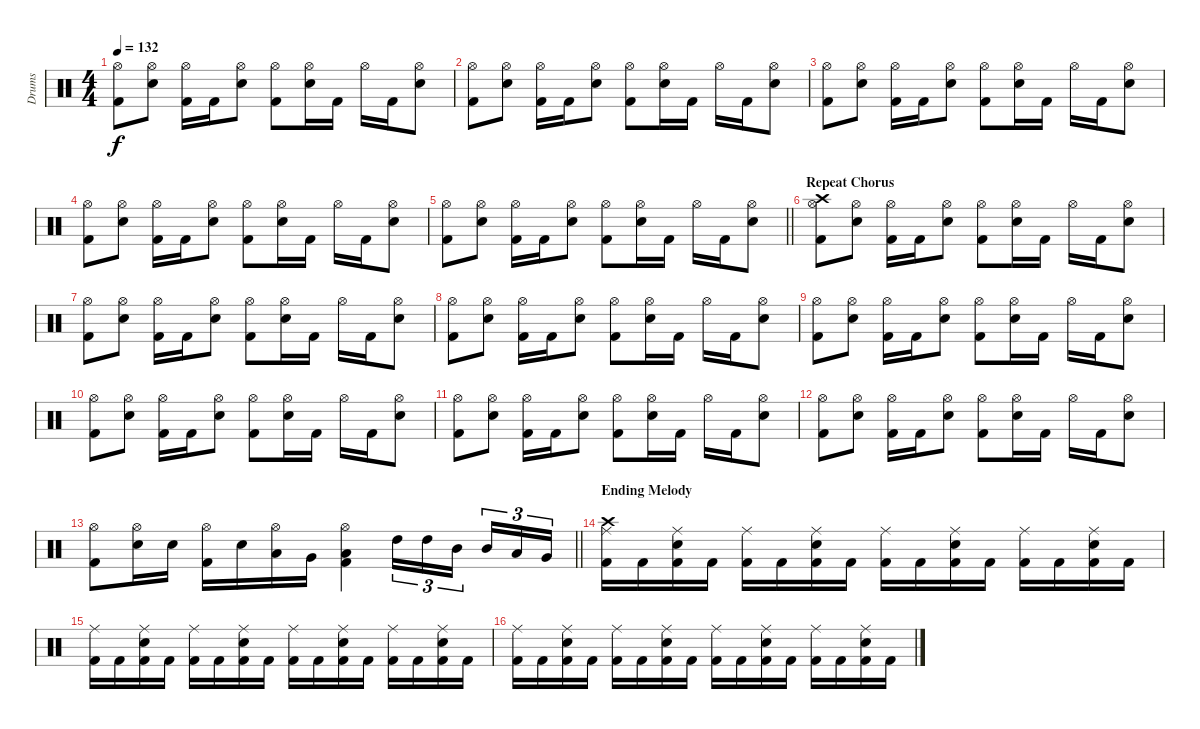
\track ("Drums" "Drums") {instrument percussion}
\staff {score}
\articulation defaults
\ts (4 4)
\tempo 132
\clef neutral
\ks c
("Hi-Hat (open)" "Kick (hit) 2").8{dy f} ("Hi-Hat (open)" "Snare (hit) 2").8 ("Hi-Hat (open)" "Kick (hit) 2").16 "Kick (hit) 2".16 ("Hi-Hat (open)" "Snare (hit) 2").8 ("Hi-Hat (open)" "Kick (hit) 2").8 ("Hi-Hat (open)" "Snare (hit) 2").16 "Kick (hit) 2".16 "Hi-Hat (open)".16 "Kick (hit) 2".16 ("Hi-Hat (open)" "Snare (hit) 2").8 |
("Hi-Hat (open)" "Kick (hit) 2").8 ("Hi-Hat (open)" "Snare (hit) 2").8 ("Hi-Hat (open)" "Kick (hit) 2").16 "Kick (hit) 2".16 ("Hi-Hat (open)" "Snare (hit) 2").8 ("Hi-Hat (open)" "Kick (hit) 2").8 ("Hi-Hat (open)" "Snare (hit) 2").16 "Kick (hit) 2".16 "Hi-Hat (open)".16 "Kick (hit) 2".16 ("Hi-Hat (open)" "Snare (hit) 2").8 |
("Hi-Hat (open)" "Kick (hit) 2").8 ("Hi-Hat (open)" "Snare (hit) 2").8 ("Hi-Hat (open)" "Kick (hit) 2").16 "Kick (hit) 2".16 ("Hi-Hat (open)" "Snare (hit) 2").8 ("Hi-Hat (open)" "Kick (hit) 2").8 ("Hi-Hat (open)" "Snare (hit) 2").16 "Kick (hit) 2".16 "Hi-Hat (open)".16 "Kick (hit) 2".16 ("Hi-Hat (open)" "Snare (hit) 2").8 |
("Hi-Hat (open)" "Kick (hit) 2").8 ("Hi-Hat (open)" "Snare (hit) 2").8 ("Hi-Hat (open)" "Kick (hit) 2").16 "Kick (hit) 2".16 ("Hi-Hat (open)" "Snare (hit) 2").8 ("Hi-Hat (open)" "Kick (hit) 2").8 ("Hi-Hat (open)" "Snare (hit) 2").16 "Kick (hit) 2".16 "Hi-Hat (open)".16 "Kick (hit) 2".16 ("Hi-Hat (open)" "Snare (hit) 2").8 |
\barLineRight lightlight
("Hi-Hat (open)" "Kick (hit) 2").8 ("Hi-Hat (open)" "Snare (hit) 2").8 ("Hi-Hat (open)" "Kick (hit) 2").16 "Kick (hit) 2".16 ("Hi-Hat (open)" "Snare (hit) 2").8 ("Hi-Hat (open)" "Kick (hit) 2").8 ("Hi-Hat (open)" "Snare (hit) 2").16 "Kick (hit) 2".16 "Hi-Hat (open)".16 "Kick (hit) 2".16 ("Hi-Hat (open)" "Snare (hit) 2").8 |
\section ("" "Repeat Chorus")
("Crash high (hit)" "Hi-Hat (open)" "Kick (hit) 2").8 ("Hi-Hat (open)" "Snare (hit) 2").8 ("Hi-Hat (open)" "Kick (hit) 2").16 "Kick (hit) 2".16 ("Hi-Hat (open)" "Snare (hit) 2").8 ("Hi-Hat (open)" "Kick (hit) 2").8 ("Hi-Hat (open)" "Snare (hit) 2").16 "Kick (hit) 2".16 "Hi-Hat (open)".16 "Kick (hit) 2".16 ("Hi-Hat (open)" "Snare (hit) 2").8 |
("Hi-Hat (open)" "Kick (hit) 2").8 ("Hi-Hat (open)" "Snare (hit) 2").8 ("Hi-Hat (open)" "Kick (hit) 2").16 "Kick (hit) 2".16 ("Hi-Hat (open)" "Snare (hit) 2").8 ("Hi-Hat (open)" "Kick (hit) 2").8 ("Hi-Hat (open)" "Snare (hit) 2").16 "Kick (hit) 2".16 "Hi-Hat (open)".16 "Kick (hit) 2".16 ("Hi-Hat (open)" "Snare (hit) 2").8 |
("Hi-Hat (open)" "Kick (hit) 2").8 ("Hi-Hat (open)" "Snare (hit) 2").8 ("Hi-Hat (open)" "Kick (hit) 2").16 "Kick (hit) 2".16 ("Hi-Hat (open)" "Snare (hit) 2").8 ("Hi-Hat (open)" "Kick (hit) 2").8 ("Hi-Hat (open)" "Snare (hit) 2").16 "Kick (hit) 2".16 "Hi-Hat (open)".16 "Kick (hit) 2".16 ("Hi-Hat (open)" "Snare (hit) 2").8 |
("Hi-Hat (open)" "Kick (hit) 2").8 ("Hi-Hat (open)" "Snare (hit) 2").8 ("Hi-Hat (open)" "Kick (hit) 2").16 "Kick (hit) 2".16 ("Hi-Hat (open)" "Snare (hit) 2").8 ("Hi-Hat (open)" "Kick (hit) 2").8 ("Hi-Hat (open)" "Snare (hit) 2").16 "Kick (hit) 2".16 "Hi-Hat (open)".16 "Kick (hit) 2".16 ("Hi-Hat (open)" "Snare (hit) 2").8 |
("Hi-Hat (open)" "Kick (hit) 2").8 ("Hi-Hat (open)" "Snare (hit) 2").8 ("Hi-Hat (open)" "Kick (hit) 2").16 "Kick (hit) 2".16 ("Hi-Hat (open)" "Snare (hit) 2").8 ("Hi-Hat (open)" "Kick (hit) 2").8 ("Hi-Hat (open)" "Snare (hit) 2").16 "Kick (hit) 2".16 "Hi-Hat (open)".16 "Kick (hit) 2".16 ("Hi-Hat (open)" "Snare (hit) 2").8 |
("Hi-Hat (open)" "Kick (hit) 2").8 ("Hi-Hat (open)" "Snare (hit) 2").8 ("Hi-Hat (open)" "Kick (hit) 2").16 "Kick (hit) 2".16 ("Hi-Hat (open)" "Snare (hit) 2").8 ("Hi-Hat (open)" "Kick (hit) 2").8 ("Hi-Hat (open)" "Snare (hit) 2").16 "Kick (hit) 2".16 "Hi-Hat (open)".16 "Kick (hit) 2".16 ("Hi-Hat (open)" "Snare (hit) 2").8 |
("Hi-Hat (open)" "Kick (hit) 2").8 ("Hi-Hat (open)" "Snare (hit) 2").8 ("Hi-Hat (open)" "Kick (hit) 2").16 "Kick (hit) 2".16 ("Hi-Hat (open)" "Snare (hit) 2").8 ("Hi-Hat (open)" "Kick (hit) 2").8 ("Hi-Hat (open)" "Snare (hit) 2").16 "Kick (hit) 2".16 "Hi-Hat (open)".16 "Kick (hit) 2".16 ("Hi-Hat (open)" "Snare (hit) 2").8 |
\barLineRight lightlight
("Hi-Hat (open)" "Kick (hit) 2").8 ("Hi-Hat (open)" "Snare (hit) 2").16 "Snare (hit) 2".16 ("Hi-Hat (open)" "Kick (hit) 2").16 "Snare (hit) 2".16 ("Hi-Hat (open)" "Low Tom (hit)").16 "Very Low Tom (hit)".16 ("Hi-Hat (open)" "Low Floor Tom (hit)" "Kick (hit) 2").4 "High Tom (hit)".16{tu (3 2)} "High Tom (hit)".16{tu (3 2)} "Mid Tom (hit)".16{tu (3 2) beam splitsecondary} "Mid Tom (hit)".16{tu (3 2)} "Low Tom (hit)".16{tu (3 2)} "Very Low Tom (hit)".16{tu (3 2)} |
\section ("" "Ending Melody")
("Crash high (hit)" "Ride (middle)" "Kick (hit) 2").16 "Kick (hit) 2".16 ("Ride (middle)" "Snare (hit) 2" "Kick (hit) 2").16 "Kick (hit) 2".16 ("Ride (middle)" "Kick (hit) 2").16 "Kick (hit) 2".16 ("Ride (middle)" "Snare (hit) 2" "Kick (hit) 2").16 "Kick (hit) 2".16 ("Ride (middle)" "Kick (hit) 2").16 "Kick (hit) 2".16 ("Ride (middle)" "Snare (hit) 2" "Kick (hit) 2").16 "Kick (hit) 2".16 ("Ride (middle)" "Kick (hit) 2").16 "Kick (hit) 2".16 ("Ride (middle)" "Snare (hit) 2" "Kick (hit) 2").16 "Kick (hit) 2".16 |
("Ride (middle)" "Kick (hit) 2").16 "Kick (hit) 2".16 ("Ride (middle)" "Snare (hit) 2" "Kick (hit) 2").16 "Kick (hit) 2".16 ("Ride (middle)" "Kick (hit) 2").16 "Kick (hit) 2".16 ("Ride (middle)" "Snare (hit) 2" "Kick (hit) 2").16 "Kick (hit) 2".16 ("Ride (middle)" "Kick (hit) 2").16 "Kick (hit) 2".16 ("Ride (middle)" "Snare (hit) 2" "Kick (hit) 2").16 "Kick (hit) 2".16 ("Ride (middle)" "Kick (hit) 2").16 "Kick (hit) 2".16 ("Ride (middle)" "Snare (hit) 2" "Kick (hit) 2").16 "Kick (hit) 2".16 |
("Ride (middle)" "Kick (hit) 2").16 "Kick (hit) 2".16 ("Ride (middle)" "Snare (hit) 2" "Kick (hit) 2").16 "Kick (hit) 2".16 ("Ride (middle)" "Kick (hit) 2").16 "Kick (hit) 2".16 ("Ride (middle)" "Snare (hit) 2" "Kick (hit) 2").16 "Kick (hit) 2".16 ("Ride (middle)" "Kick (hit) 2").16 "Kick (hit) 2".16 ("Ride (middle)" "Snare (hit) 2" "Kick (hit) 2").16 "Kick (hit) 2".16 ("Ride (middle)" "Kick (hit) 2").16 "Kick (hit) 2".16 ("Ride (middle)" "Snare (hit) 2" "Kick (hit) 2").16 "Kick (hit) 2".16
